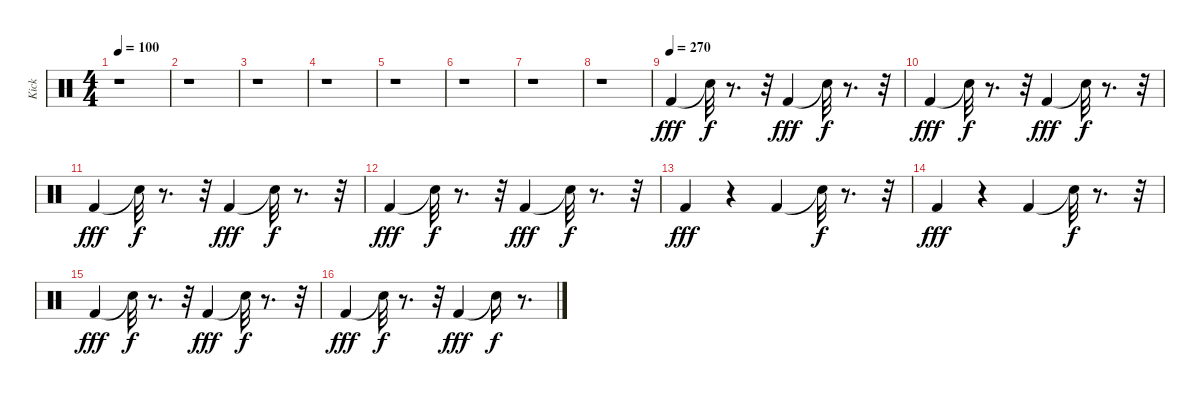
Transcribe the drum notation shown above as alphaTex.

\track ("Kick" "Kick") {instrument percussion}
\staff {score}
\articulation defaults
\ts (4 4)
\tempo 100
\clef neutral
\ks c
r.1{dy fff} |
r.1 |
r.1 |
r.1 |
r.1 |
r.1 |
r.1 |
r.1 |
\tempo (270)
"Kick (hit) 2".4 "Snare (hit)"{t}.32{dy f} r.8{d} r.32 "Kick (hit) 2".4{dy fff} "Snare (hit)"{t}.32{dy f} r.8{d} r.32 |
"Kick (hit) 2".4{dy fff} "Snare (hit)"{t}.32{dy f} r.8{d} r.32 "Kick (hit) 2".4{dy fff} "Snare (hit)"{t}.32{dy f} r.8{d} r.32 |
"Kick (hit) 2".4{dy fff} "Snare (hit)"{t}.32{dy f} r.8{d} r.32 "Kick (hit) 2".4{dy fff} "Snare (hit)"{t}.32{dy f} r.8{d} r.32 |
"Kick (hit) 2".4{dy fff} "Snare (hit)"{t}.32{dy f} r.8{d} r.32 "Kick (hit) 2".4{dy fff} "Snare (hit)"{t}.32{dy f} r.8{d} r.32 |
"Kick (hit) 2".4{dy fff} r.4 "Kick (hit) 2".4 "Snare (hit)"{t}.32{dy f} r.8{d} r.32 |
"Kick (hit) 2".4{dy fff} r.4 "Kick (hit) 2".4 "Snare (hit)"{t}.32{dy f} r.8{d} r.32 |
"Kick (hit) 2".4{dy fff} "Snare (hit)"{t}.32{dy f} r.8{d} r.32 "Kick (hit) 2".4{dy fff} "Snare (hit)"{t}.32{dy f} r.8{d} r.32 |
"Kick (hit) 2".4{dy fff} "Snare (hit)"{t}.32{dy f} r.8{d} r.32 "Kick (hit) 2".4{dy fff} "Snare (hit)"{t}.16{dy f} r.8{d}
